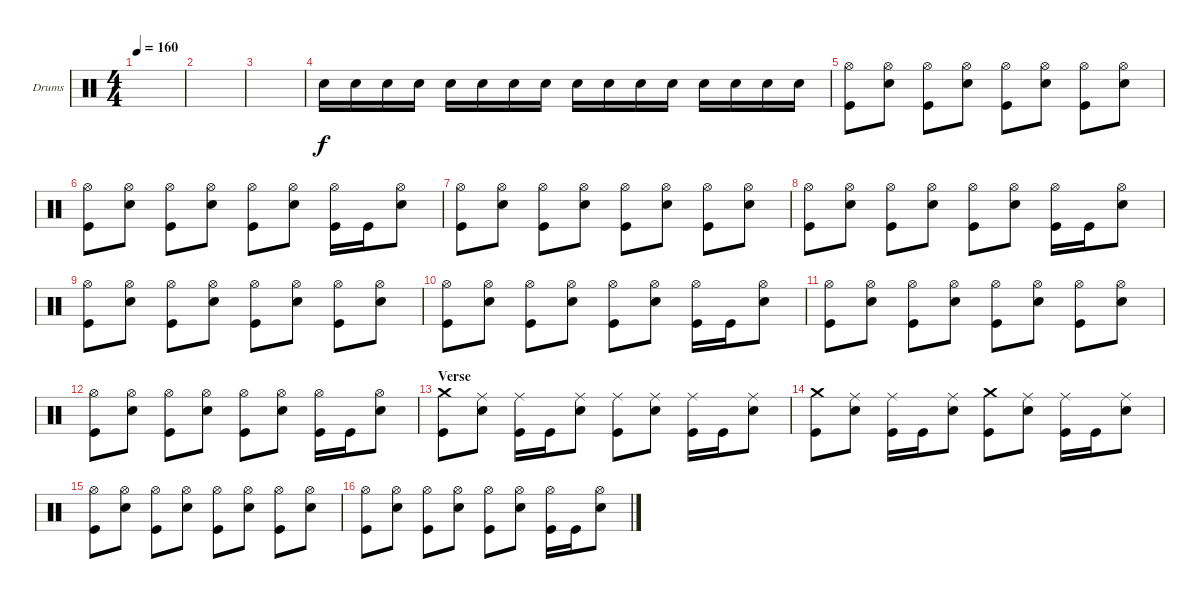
\bracketExtendMode groupsimilarinstruments
\firstSystemTrackNameOrientation horizontal
\otherSystemsTrackNameOrientation horizontal
\track ("Drums" "Drums") {instrument percussion}
\staff {score}
\articulation defaults
\ts (4 4)
\tempo 160
\clef neutral
\ks c
|
|
|
"Snare (hit) 2".16 "Snare (hit) 2".16 "Snare (hit) 2".16 "Snare (hit) 2".16 "Snare (hit) 2".16 "Snare (hit) 2".16 "Snare (hit) 2".16 "Snare (hit) 2".16 "Snare (hit) 2".16 "Snare (hit) 2".16 "Snare (hit) 2".16 "Snare (hit) 2".16 "Snare (hit) 2".16 "Snare (hit) 2".16 "Snare (hit) 2".16 "Snare (hit) 2".16 |
("Hi-Hat (open)" "Kick (hit)").8 ("Hi-Hat (open)" "Snare (hit) 2").8 ("Hi-Hat (open)" "Kick (hit)").8 ("Hi-Hat (open)" "Snare (hit) 2").8 ("Hi-Hat (open)" "Kick (hit)").8 ("Hi-Hat (open)" "Snare (hit) 2").8 ("Hi-Hat (open)" "Kick (hit)").8 ("Hi-Hat (open)" "Snare (hit) 2").8 |
("Hi-Hat (open)" "Kick (hit)").8 ("Hi-Hat (open)" "Snare (hit) 2").8 ("Hi-Hat (open)" "Kick (hit)").8 ("Hi-Hat (open)" "Snare (hit) 2").8 ("Hi-Hat (open)" "Kick (hit)").8 ("Hi-Hat (open)" "Snare (hit) 2").8 ("Hi-Hat (open)" "Kick (hit)").16 "Kick (hit)".16 ("Hi-Hat (open)" "Snare (hit) 2").8 |
("Hi-Hat (open)" "Kick (hit)").8 ("Hi-Hat (open)" "Snare (hit) 2").8 ("Hi-Hat (open)" "Kick (hit)").8 ("Hi-Hat (open)" "Snare (hit) 2").8 ("Hi-Hat (open)" "Kick (hit)").8 ("Hi-Hat (open)" "Snare (hit) 2").8 ("Hi-Hat (open)" "Kick (hit)").8 ("Hi-Hat (open)" "Snare (hit) 2").8 |
("Hi-Hat (open)" "Kick (hit)").8 ("Hi-Hat (open)" "Snare (hit) 2").8 ("Hi-Hat (open)" "Kick (hit)").8 ("Hi-Hat (open)" "Snare (hit) 2").8 ("Hi-Hat (open)" "Kick (hit)").8 ("Hi-Hat (open)" "Snare (hit) 2").8 ("Hi-Hat (open)" "Kick (hit)").16 "Kick (hit)".16 ("Hi-Hat (open)" "Snare (hit) 2").8 |
("Hi-Hat (open)" "Kick (hit)").8 ("Hi-Hat (open)" "Snare (hit) 2").8 ("Hi-Hat (open)" "Kick (hit)").8 ("Hi-Hat (open)" "Snare (hit) 2").8 ("Hi-Hat (open)" "Kick (hit)").8 ("Hi-Hat (open)" "Snare (hit) 2").8 ("Hi-Hat (open)" "Kick (hit)").8 ("Hi-Hat (open)" "Snare (hit) 2").8 |
("Hi-Hat (open)" "Kick (hit)").8 ("Hi-Hat (open)" "Snare (hit) 2").8 ("Hi-Hat (open)" "Kick (hit)").8 ("Hi-Hat (open)" "Snare (hit) 2").8 ("Hi-Hat (open)" "Kick (hit)").8 ("Hi-Hat (open)" "Snare (hit) 2").8 ("Hi-Hat (open)" "Kick (hit)").16 "Kick (hit)".16 ("Hi-Hat (open)" "Snare (hit) 2").8 |
("Hi-Hat (open)" "Kick (hit)").8 ("Hi-Hat (open)" "Snare (hit) 2").8 ("Hi-Hat (open)" "Kick (hit)").8 ("Hi-Hat (open)" "Snare (hit) 2").8 ("Hi-Hat (open)" "Kick (hit)").8 ("Hi-Hat (open)" "Snare (hit) 2").8 ("Hi-Hat (open)" "Kick (hit)").8 ("Hi-Hat (open)" "Snare (hit) 2").8 |
("Hi-Hat (open)" "Kick (hit)").8 ("Hi-Hat (open)" "Snare (hit) 2").8 ("Hi-Hat (open)" "Kick (hit)").8 ("Hi-Hat (open)" "Snare (hit) 2").8 ("Hi-Hat (open)" "Kick (hit)").8 ("Hi-Hat (open)" "Snare (hit) 2").8 ("Hi-Hat (open)" "Kick (hit)").16 "Kick (hit)".16 ("Hi-Hat (open)" "Snare (hit) 2").8 |
\section ("" "Verse")
("Crash medium (hit)" "Kick (hit)").8 ("Ride (middle)" "Snare (hit) 2").8 ("Ride (middle)" "Kick (hit)").16 "Kick (hit)".16 ("Ride (middle)" "Snare (hit) 2").8 ("Ride (middle)" "Kick (hit)").8 ("Ride (middle)" "Snare (hit) 2").8 ("Ride (middle)" "Kick (hit)").16 "Kick (hit)".16 ("Ride (middle)" "Snare (hit) 2").8 |
("Crash medium (hit)" "Kick (hit)").8 ("Ride (middle)" "Snare (hit) 2").8 ("Ride (middle)" "Kick (hit)").16 "Kick (hit)".16 ("Ride (middle)" "Snare (hit) 2").8 ("Crash medium (hit)" "Kick (hit)").8 ("Ride (middle)" "Snare (hit) 2").8 ("Ride (middle)" "Kick (hit)").16 "Kick (hit)".16 ("Ride (middle)" "Snare (hit) 2").8 |
("Hi-Hat (open)" "Kick (hit)").8 ("Hi-Hat (open)" "Snare (hit) 2").8 ("Hi-Hat (open)" "Kick (hit)").8 ("Hi-Hat (open)" "Snare (hit) 2").8 ("Hi-Hat (open)" "Kick (hit)").8 ("Hi-Hat (open)" "Snare (hit) 2").8 ("Hi-Hat (open)" "Kick (hit)").8 ("Hi-Hat (open)" "Snare (hit) 2").8 |
("Hi-Hat (open)" "Kick (hit)").8 ("Hi-Hat (open)" "Snare (hit) 2").8 ("Hi-Hat (open)" "Kick (hit)").8 ("Hi-Hat (open)" "Snare (hit) 2").8 ("Hi-Hat (open)" "Kick (hit)").8 ("Hi-Hat (open)" "Snare (hit) 2").8 ("Hi-Hat (open)" "Kick (hit)").16 "Kick (hit)".16 ("Hi-Hat (open)" "Snare (hit) 2").8
